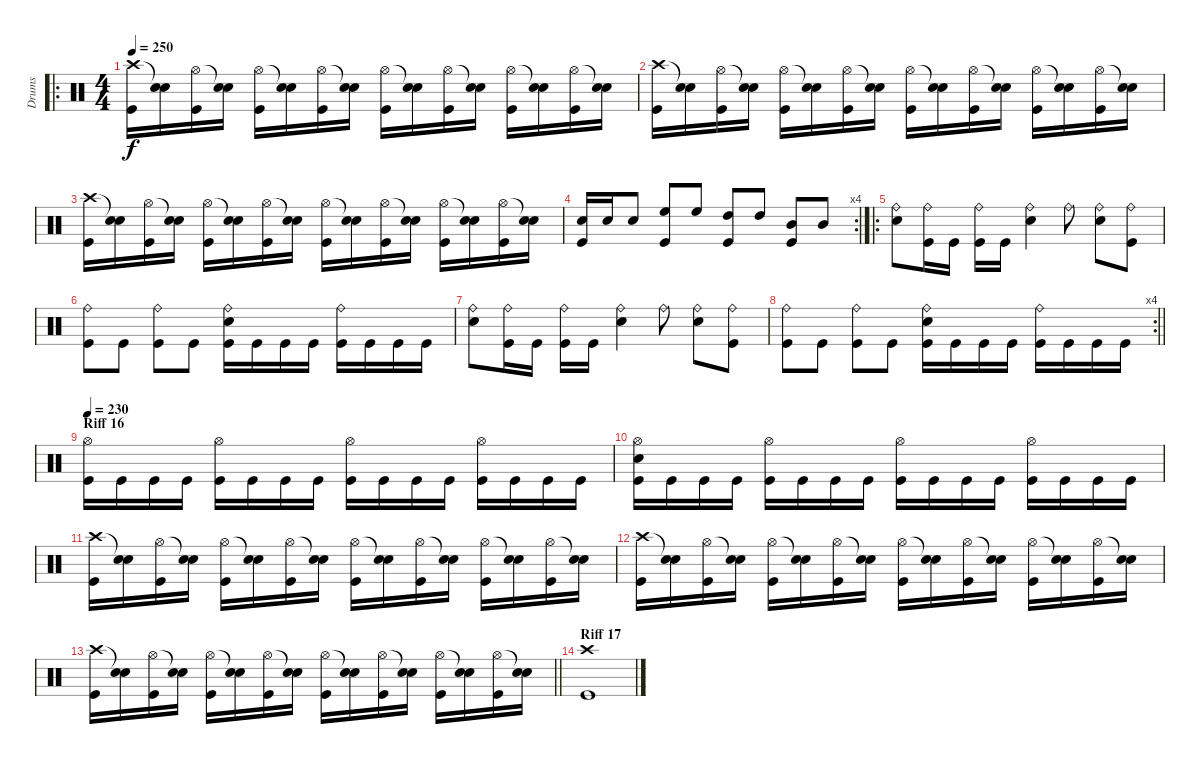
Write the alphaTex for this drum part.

\track ("Drums" "Drums") {instrument percussion}
\staff {score}
\articulation defaults
\ro
\ts (4 4)
\tempo 250
\clef neutral
\ks c
("Crash high (hit)" "Kick (hit)").16{dy f} ("Snare (hit)"{t} "Electric Snare (hit)").16 ("Hi-Hat (open)" "Kick (hit)").16 ("Snare (hit)"{t} "Electric Snare (hit)").16 ("Hi-Hat (open)" "Kick (hit)").16 ("Snare (hit)"{t} "Electric Snare (hit)").16 ("Hi-Hat (open)" "Kick (hit)").16 ("Snare (hit)"{t} "Electric Snare (hit)").16 ("Hi-Hat (open)" "Kick (hit)").16 ("Snare (hit)"{t} "Electric Snare (hit)").16 ("Hi-Hat (open)" "Kick (hit)").16 ("Snare (hit)"{t} "Electric Snare (hit)").16 ("Hi-Hat (open)" "Kick (hit)").16 ("Snare (hit)"{t} "Electric Snare (hit)").16 ("Hi-Hat (open)" "Kick (hit)").16 ("Snare (hit)"{t} "Electric Snare (hit)").16 |
("Crash high (hit)" "Kick (hit)").16 ("Snare (hit)"{t} "Electric Snare (hit)").16 ("Hi-Hat (open)" "Kick (hit)").16 ("Snare (hit)"{t} "Electric Snare (hit)").16 ("Hi-Hat (open)" "Kick (hit)").16 ("Snare (hit)"{t} "Electric Snare (hit)").16 ("Hi-Hat (open)" "Kick (hit)").16 ("Snare (hit)"{t} "Electric Snare (hit)").16 ("Hi-Hat (open)" "Kick (hit)").16 ("Snare (hit)"{t} "Electric Snare (hit)").16 ("Hi-Hat (open)" "Kick (hit)").16 ("Snare (hit)"{t} "Electric Snare (hit)").16 ("Hi-Hat (open)" "Kick (hit)").16 ("Snare (hit)"{t} "Electric Snare (hit)").16 ("Hi-Hat (open)" "Kick (hit)").16 ("Snare (hit)"{t} "Electric Snare (hit)").16 |
("Crash high (hit)" "Kick (hit)").16 ("Snare (hit)"{t} "Electric Snare (hit)").16 ("Hi-Hat (open)" "Kick (hit)").16 ("Snare (hit)"{t} "Electric Snare (hit)").16 ("Hi-Hat (open)" "Kick (hit)").16 ("Snare (hit)"{t} "Electric Snare (hit)").16 ("Hi-Hat (open)" "Kick (hit)").16 ("Snare (hit)"{t} "Electric Snare (hit)").16 ("Hi-Hat (open)" "Kick (hit)").16 ("Snare (hit)"{t} "Electric Snare (hit)").16 ("Hi-Hat (open)" "Kick (hit)").16 ("Snare (hit)"{t} "Electric Snare (hit)").16 ("Hi-Hat (open)" "Kick (hit)").16 ("Snare (hit)"{t} "Electric Snare (hit)").16 ("Hi-Hat (open)" "Kick (hit)").16 ("Snare (hit)"{t} "Electric Snare (hit)").16 |
\rc 4
("Electric Snare (hit)" "Kick (hit)").16 "Electric Snare (hit)".16 "Electric Snare (hit)".8 ("High Floor Tom (hit)" "Kick (hit)").8 "High Floor Tom (hit)".8 ("High Tom (hit)" "Kick (hit)").8 "High Tom (hit)".8 ("Mid Tom (hit)" "Kick (hit)").8 "Mid Tom (hit)".8 |
\ro
("Ride (bell)" "Electric Snare (hit)").8 ("Ride (bell)" "Kick (hit)").16 "Kick (hit)".16 ("Ride (bell)" "Kick (hit)").16 "Kick (hit)".16 ("Ride (bell)" "Electric Snare (hit)").4 "Ride (bell)".8 ("Ride (bell)" "Electric Snare (hit)").8 ("Ride (bell)" "Kick (hit)").8 |
("Ride (bell)" "Kick (hit)").8 "Kick (hit)".8 ("Ride (bell)" "Kick (hit)").8 "Kick (hit)".8 ("Ride (bell)" "Electric Snare (hit)" "Kick (hit)").16 "Kick (hit)".16 "Kick (hit)".16 "Kick (hit)".16 ("Ride (bell)" "Kick (hit)").16 "Kick (hit)".16 "Kick (hit)".16 "Kick (hit)".16 |
("Ride (bell)" "Electric Snare (hit)").8 ("Ride (bell)" "Kick (hit)").16 "Kick (hit)".16 ("Ride (bell)" "Kick (hit)").16 "Kick (hit)".16 ("Ride (bell)" "Electric Snare (hit)").4 "Ride (bell)".8 ("Ride (bell)" "Electric Snare (hit)").8 ("Ride (bell)" "Kick (hit)").8 |
\rc 4
\barLineRight lightlight
("Ride (bell)" "Kick (hit)").8 "Kick (hit)".8 ("Ride (bell)" "Kick (hit)").8 "Kick (hit)".8 ("Ride (bell)" "Electric Snare (hit)" "Kick (hit)").16 "Kick (hit)".16 "Kick (hit)".16 "Kick (hit)".16 ("Ride (bell)" "Kick (hit)").16 "Kick (hit)".16 "Kick (hit)".16 "Kick (hit)".16 |
\section ("" "Riff 16")
\tempo 230
("Hi-Hat (open)" "Kick (hit)").16 "Kick (hit)".16 "Kick (hit)".16 "Kick (hit)".16 ("Hi-Hat (open)" "Kick (hit)").16 "Kick (hit)".16 "Kick (hit)".16 "Kick (hit)".16 ("Hi-Hat (open)" "Kick (hit)").16 "Kick (hit)".16 "Kick (hit)".16 "Kick (hit)".16 ("Hi-Hat (open)" "Kick (hit)").16 "Kick (hit)".16 "Kick (hit)".16 "Kick (hit)".16 |
("Hi-Hat (open)" "Electric Snare (hit)" "Kick (hit)").16 "Kick (hit)".16 "Kick (hit)".16 "Kick (hit)".16 ("Hi-Hat (open)" "Kick (hit)").16 "Kick (hit)".16 "Kick (hit)".16 "Kick (hit)".16 ("Hi-Hat (open)" "Kick (hit)").16 "Kick (hit)".16 "Kick (hit)".16 "Kick (hit)".16 ("Hi-Hat (open)" "Kick (hit)").16 "Kick (hit)".16 "Kick (hit)".16 "Kick (hit)".16 |
("Crash high (hit)" "Kick (hit)").16 ("Snare (hit)"{t} "Electric Snare (hit)").16 ("Hi-Hat (open)" "Kick (hit)").16 ("Snare (hit)"{t} "Electric Snare (hit)").16 ("Hi-Hat (open)" "Kick (hit)").16 ("Snare (hit)"{t} "Electric Snare (hit)").16 ("Hi-Hat (open)" "Kick (hit)").16 ("Snare (hit)"{t} "Electric Snare (hit)").16 ("Hi-Hat (open)" "Kick (hit)").16 ("Snare (hit)"{t} "Electric Snare (hit)").16 ("Hi-Hat (open)" "Kick (hit)").16 ("Snare (hit)"{t} "Electric Snare (hit)").16 ("Hi-Hat (open)" "Kick (hit)").16 ("Snare (hit)"{t} "Electric Snare (hit)").16 ("Hi-Hat (open)" "Kick (hit)").16 ("Snare (hit)"{t} "Electric Snare (hit)").16 |
("Crash high (hit)" "Kick (hit)").16 ("Snare (hit)"{t} "Electric Snare (hit)").16 ("Hi-Hat (open)" "Kick (hit)").16 ("Snare (hit)"{t} "Electric Snare (hit)").16 ("Hi-Hat (open)" "Kick (hit)").16 ("Snare (hit)"{t} "Electric Snare (hit)").16 ("Hi-Hat (open)" "Kick (hit)").16 ("Snare (hit)"{t} "Electric Snare (hit)").16 ("Hi-Hat (open)" "Kick (hit)").16 ("Snare (hit)"{t} "Electric Snare (hit)").16 ("Hi-Hat (open)" "Kick (hit)").16 ("Snare (hit)"{t} "Electric Snare (hit)").16 ("Hi-Hat (open)" "Kick (hit)").16 ("Snare (hit)"{t} "Electric Snare (hit)").16 ("Hi-Hat (open)" "Kick (hit)").16 ("Snare (hit)"{t} "Electric Snare (hit)").16 |
\barLineRight lightlight
("Crash high (hit)" "Kick (hit)").16 ("Snare (hit)"{t} "Electric Snare (hit)").16 ("Hi-Hat (open)" "Kick (hit)").16 ("Snare (hit)"{t} "Electric Snare (hit)").16 ("Hi-Hat (open)" "Kick (hit)").16 ("Snare (hit)"{t} "Electric Snare (hit)").16 ("Hi-Hat (open)" "Kick (hit)").16 ("Snare (hit)"{t} "Electric Snare (hit)").16 ("Hi-Hat (open)" "Kick (hit)").16 ("Snare (hit)"{t} "Electric Snare (hit)").16 ("Hi-Hat (open)" "Kick (hit)").16 ("Snare (hit)"{t} "Electric Snare (hit)").16 ("Hi-Hat (open)" "Kick (hit)").16 ("Snare (hit)"{t} "Electric Snare (hit)").16 ("Hi-Hat (open)" "Kick (hit)").16 ("Snare (hit)"{t} "Electric Snare (hit)").16 |
\section ("" "Riff 17")
("Crash high (hit)" "Kick (hit)").1
